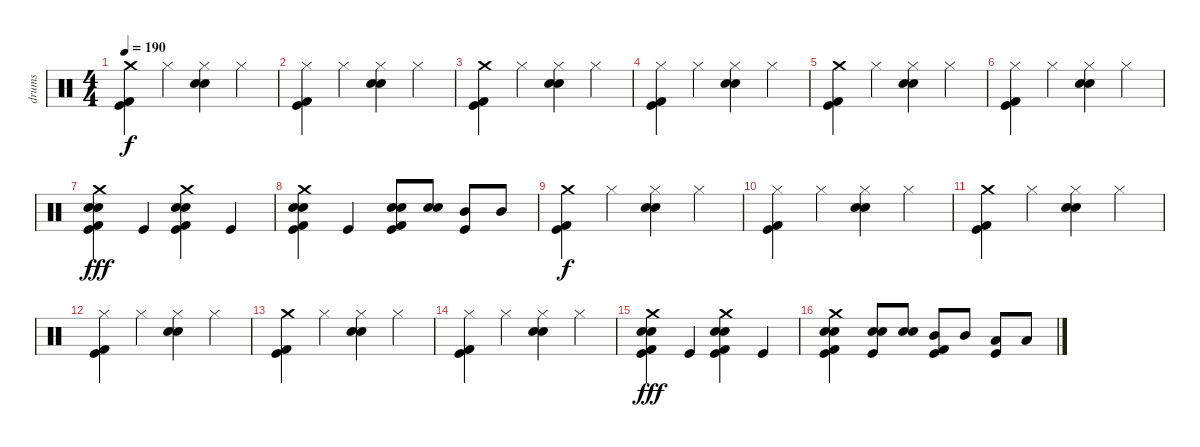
\track ("drums" "drums") {instrument percussion}
\staff {score}
\articulation defaults
\ts (4 4)
\tempo 190
\clef neutral
\ks c
("Crash medium (hit)" "Kick (hit) 2" "Kick (hit)").4{dy f} "Hi-Hat (closed)".4 ("Hi-Hat (closed)" "Electric Snare (hit)" "Snare (hit) 2").4 "Hi-Hat (closed)".4 |
("Hi-Hat (closed)" "Kick (hit) 2" "Kick (hit)").4 "Hi-Hat (closed)".4 ("Hi-Hat (closed)" "Electric Snare (hit)" "Snare (hit) 2").4 "Hi-Hat (closed)".4 |
("Crash medium (hit)" "Kick (hit) 2" "Kick (hit)").4 "Hi-Hat (closed)".4 ("Hi-Hat (closed)" "Electric Snare (hit)" "Snare (hit) 2").4 "Hi-Hat (closed)".4 |
("Hi-Hat (closed)" "Kick (hit) 2" "Kick (hit)").4 "Hi-Hat (closed)".4 ("Hi-Hat (closed)" "Electric Snare (hit)" "Snare (hit) 2").4 "Hi-Hat (closed)".4 |
("Crash medium (hit)" "Kick (hit) 2" "Kick (hit)").4 "Hi-Hat (closed)".4 ("Hi-Hat (closed)" "Electric Snare (hit)" "Snare (hit) 2").4 "Hi-Hat (closed)".4 |
("Hi-Hat (closed)" "Kick (hit) 2" "Kick (hit)").4 "Hi-Hat (closed)".4 ("Hi-Hat (closed)" "Electric Snare (hit)" "Snare (hit) 2").4 "Hi-Hat (closed)".4 |
("Crash medium (hit)" "Snare (hit) 2" "Electric Snare (hit)" "Kick (hit) 2" "Kick (hit)").4{dy fff} "Kick (hit)".4 ("Crash medium (hit)" "Snare (hit) 2" "Electric Snare (hit)" "Kick (hit) 2" "Kick (hit)").4 "Kick (hit)".4 |
("Crash medium (hit)" "Snare (hit) 2" "Electric Snare (hit)" "Kick (hit) 2" "Kick (hit)").4 "Kick (hit)".4 ("Snare (hit) 2" "Electric Snare (hit)" "Kick (hit) 2" "Kick (hit)").8 ("Snare (hit) 2" "Electric Snare (hit)").8 ("Mid Tom (hit)" "Kick (hit)").8 "Mid Tom (hit)".8 |
("Crash medium (hit)" "Kick (hit) 2" "Kick (hit)").4{dy f} "Hi-Hat (closed)".4 ("Hi-Hat (closed)" "Electric Snare (hit)" "Snare (hit) 2").4 "Hi-Hat (closed)".4 |
("Hi-Hat (closed)" "Kick (hit) 2" "Kick (hit)").4 "Hi-Hat (closed)".4 ("Hi-Hat (closed)" "Electric Snare (hit)" "Snare (hit) 2").4 "Hi-Hat (closed)".4 |
("Crash medium (hit)" "Kick (hit) 2" "Kick (hit)").4 "Hi-Hat (closed)".4 ("Hi-Hat (closed)" "Electric Snare (hit)" "Snare (hit) 2").4 "Hi-Hat (closed)".4 |
("Hi-Hat (closed)" "Kick (hit) 2" "Kick (hit)").4 "Hi-Hat (closed)".4 ("Hi-Hat (closed)" "Electric Snare (hit)" "Snare (hit) 2").4 "Hi-Hat (closed)".4 |
("Crash medium (hit)" "Kick (hit) 2" "Kick (hit)").4 "Hi-Hat (closed)".4 ("Hi-Hat (closed)" "Electric Snare (hit)" "Snare (hit) 2").4 "Hi-Hat (closed)".4 |
("Hi-Hat (closed)" "Kick (hit) 2" "Kick (hit)").4 "Hi-Hat (closed)".4 ("Hi-Hat (closed)" "Electric Snare (hit)" "Snare (hit) 2").4 "Hi-Hat (closed)".4 |
("Crash medium (hit)" "Snare (hit) 2" "Electric Snare (hit)" "Kick (hit) 2" "Kick (hit)").4{dy fff} "Kick (hit)".4 ("Crash medium (hit)" "Snare (hit) 2" "Electric Snare (hit)" "Kick (hit) 2" "Kick (hit)").4 "Kick (hit)".4 |
("Crash medium (hit)" "Snare (hit) 2" "Electric Snare (hit)" "Kick (hit) 2" "Kick (hit)").4 ("Snare (hit) 2" "Electric Snare (hit)" "Kick (hit)").8 ("Snare (hit) 2" "Electric Snare (hit)").8 ("Mid Tom (hit)" "Kick (hit) 2" "Kick (hit)").8 "Mid Tom (hit)".8 ("Low Tom (hit)" "Kick (hit)").8 "Low Tom (hit)".8
